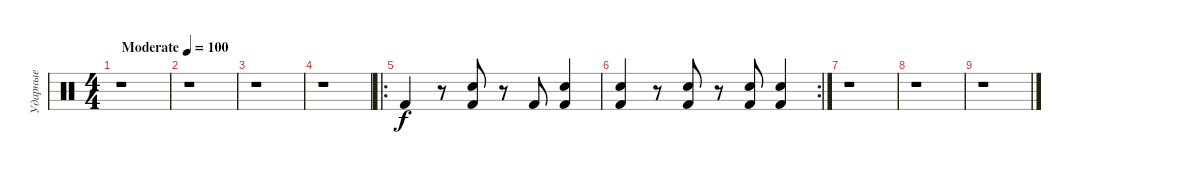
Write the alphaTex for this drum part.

\track ("Ударные" "Ударные") {instrument percussion}
\staff {score}
\articulation defaults
\ts (4 4)
\tempo (100 "Moderate")
\clef neutral
\ks c
r.1{dy f} |
r.1 |
r.1 |
r.1 |
\ro "Kick (hit) 2".4
r.8 ("Snare (hit) 2" "Kick (hit) 2").8 r.8 "Kick (hit) 2".8 ("Electric Snare (hit)" "Kick (hit) 2").4 |
\rc 2
("Snare (hit) 2" "Kick (hit) 2").4 r.8 ("Electric Snare (hit)" "Kick (hit) 2").8 r.8 ("Electric Snare (hit)" "Kick (hit) 2").8 ("Snare (hit) 2" "Kick (hit) 2").4 |
r.1 |
r.1 |
r.1
